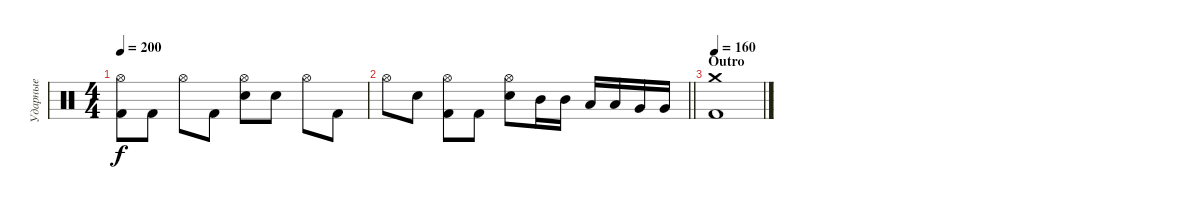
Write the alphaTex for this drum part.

\track ("Ударные" "Ударные") {instrument percussion}
\staff {score}
\articulation defaults
\ts (4 4)
\tempo 200
\clef neutral
\ks c
("Hi-Hat (open)" "Kick (hit) 2").8{dy f} "Kick (hit) 2".8 "Hi-Hat (open)".8 "Kick (hit) 2".8 ("Hi-Hat (open)" "Electric Snare (hit)").8 "Electric Snare (hit)".8 "Hi-Hat (open)".8 "Kick (hit) 2".8 |
\barLineRight lightlight "Hi-Hat (open)".8 "Electric Snare (hit)".8
("Hi-Hat (open)" "Kick (hit) 2").8 "Kick (hit) 2".8 ("Hi-Hat (open)" "Electric Snare (hit)").8 "Mid Tom (hit)".16 "Mid Tom (hit)".16 "Low Tom (hit)".16 "Low Tom (hit)".16 "Very Low Tom (hit)".16 "Very Low Tom (hit)".16 |
\section ("" "Outro")
\tempo 160
("Crash medium (hit)" "Kick (hit) 2").1
